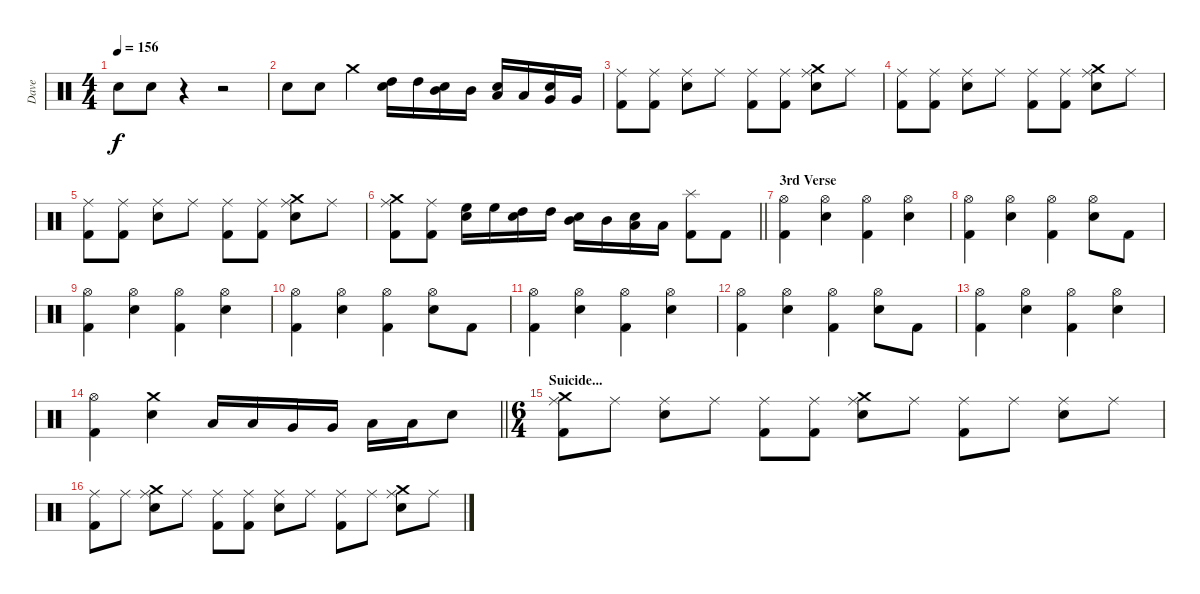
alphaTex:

\track ("Dave" "Dave") {instrument percussion}
\staff {score}
\articulation defaults
\ts (4 4)
\tempo 156
\clef neutral
\ks c "Electric Snare (hit)".8{dy f} "Electric Snare (hit)".8
r.4 r.2 |
"Electric Snare (hit)".8 "Electric Snare (hit)".8 "Crash medium (hit)".4 ("Electric Snare (hit)" "High Tom (hit)").16 "High Tom (hit)".16 ("Electric Snare (hit)" "Mid Tom (hit)").16 "Mid Tom (hit)".16 ("Electric Snare (hit)" "Low Tom (hit)").16 "Low Tom (hit)".16 ("Electric Snare (hit)" "Very Low Tom (hit)").16 "Very Low Tom (hit)".16 |
("Ride (middle)" "Kick (hit) 2").8 ("Ride (middle)" "Kick (hit) 2").8 ("Ride (middle)" "Electric Snare (hit)").8 "Ride (middle)".8 ("Ride (middle)" "Kick (hit) 2").8 ("Ride (middle)" "Kick (hit) 2").8 ("Ride (middle)" "Electric Snare (hit)" "Crash medium (hit)").8 "Ride (middle)".8 |
("Kick (hit) 2" "Ride (middle)").8 ("Ride (middle)" "Kick (hit) 2").8 ("Ride (middle)" "Electric Snare (hit)").8 "Ride (middle)".8 ("Ride (middle)" "Kick (hit) 2").8 ("Ride (middle)" "Kick (hit) 2").8 ("Ride (middle)" "Electric Snare (hit)" "Crash medium (hit)").8 "Ride (middle)".8 |
("Ride (middle)" "Kick (hit) 2").8 ("Ride (middle)" "Kick (hit) 2").8 ("Ride (middle)" "Electric Snare (hit)").8 "Ride (middle)".8 ("Ride (middle)" "Kick (hit) 2").8 ("Ride (middle)" "Kick (hit) 2").8 ("Ride (middle)" "Electric Snare (hit)" "Crash medium (hit)").8 "Ride (middle)".8 |
\barLineRight lightlight
("Ride (middle)" "Kick (hit) 2" "Crash medium (hit)").8 ("Ride (middle)" "Kick (hit) 2").8 ("Electric Snare (hit)" "High Floor Tom (hit)").16 "High Floor Tom (hit)".16 ("Electric Snare (hit)" "High Tom (hit)").16 "High Tom (hit)".16 ("Electric Snare (hit)" "Mid Tom (hit)").16 "Mid Tom (hit)".16 ("Electric Snare (hit)" "Low Tom (hit)").16 "Low Tom (hit)".16 ("Splash (hit)" "Kick (hit) 2").8 "Kick (hit) 2".8 |
\section ("" "3rd Verse")
("Kick (hit) 2" "Hi-Hat (open)").4 ("Hi-Hat (open)" "Electric Snare (hit)").4 ("Hi-Hat (open)" "Kick (hit) 2").4 ("Hi-Hat (open)" "Electric Snare (hit)").4 |
("Kick (hit) 2" "Hi-Hat (open)").4 ("Hi-Hat (open)" "Electric Snare (hit)").4 ("Kick (hit) 2" "Hi-Hat (open)").4 ("Hi-Hat (open)" "Electric Snare (hit)").8 "Kick (hit) 2".8 |
("Kick (hit) 2" "Hi-Hat (open)").4 ("Hi-Hat (open)" "Electric Snare (hit)").4 ("Hi-Hat (open)" "Kick (hit) 2").4 ("Hi-Hat (open)" "Electric Snare (hit)").4 |
("Kick (hit) 2" "Hi-Hat (open)").4 ("Hi-Hat (open)" "Electric Snare (hit)").4 ("Hi-Hat (open)" "Kick (hit) 2").4 ("Hi-Hat (open)" "Electric Snare (hit)").8 "Kick (hit) 2".8 |
("Kick (hit) 2" "Hi-Hat (open)").4 ("Hi-Hat (open)" "Electric Snare (hit)").4 ("Hi-Hat (open)" "Kick (hit) 2").4 ("Hi-Hat (open)" "Electric Snare (hit)").4 |
("Kick (hit) 2" "Hi-Hat (open)").4 ("Hi-Hat (open)" "Electric Snare (hit)").4 ("Hi-Hat (open)" "Kick (hit) 2").4 ("Hi-Hat (open)" "Electric Snare (hit)").8 "Kick (hit) 2".8 |
("Kick (hit) 2" "Hi-Hat (open)").4 ("Hi-Hat (open)" "Electric Snare (hit)").4 ("Hi-Hat (open)" "Kick (hit) 2").4 ("Hi-Hat (open)" "Electric Snare (hit)").4 |
\barLineRight lightlight
("Kick (hit) 2" "Hi-Hat (open)").4 ("Electric Snare (hit)" "Crash medium (hit)").4 "Low Tom (hit)".16 "Low Tom (hit)".16 "Very Low Tom (hit)".16 "Very Low Tom (hit)".16 "Low Floor Tom (hit)".16 "Low Floor Tom (hit)".16 "Electric Snare (hit)".8 |
\ts (6 4)
\section ("" "Suicide...")
("Crash medium (hit)" "Ride (middle)" "Kick (hit) 2").8 "Ride (middle)".8 ("Ride (middle)" "Electric Snare (hit)").8 "Ride (middle)".8 ("Ride (middle)" "Kick (hit) 2").8 ("Ride (middle)" "Kick (hit) 2").8 ("Ride (middle)" "Electric Snare (hit)" "Crash medium (hit)").8 "Ride (middle)".8 ("Ride (middle)" "Kick (hit) 2").8 "Ride (middle)".8 ("Ride (middle)" "Electric Snare (hit)").8 "Ride (middle)".8 |
("Kick (hit) 2" "Ride (middle)").8 "Ride (middle)".8 ("Crash medium (hit)" "Electric Snare (hit)" "Ride (middle)").8 "Ride (middle)".8 ("Kick (hit) 2" "Ride (middle)").8 ("Kick (hit) 2" "Ride (middle)").8 ("Electric Snare (hit)" "Ride (middle)").8 "Ride (middle)".8 ("Kick (hit) 2" "Ride (middle)").8 "Ride (middle)".8 ("Electric Snare (hit)" "Ride (middle)" "Crash medium (hit)").8 "Ride (middle)".8
